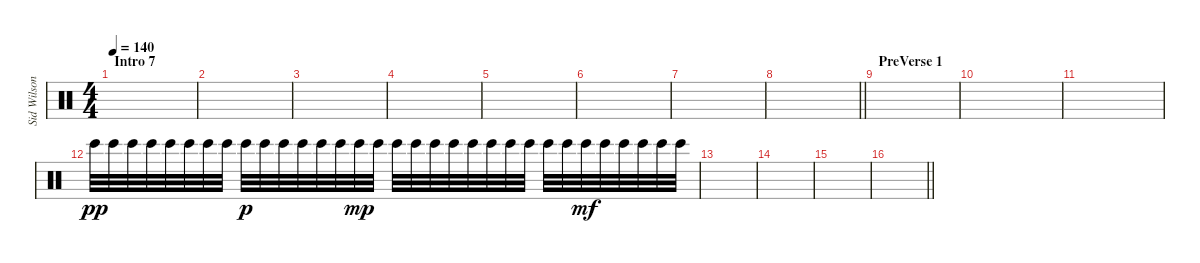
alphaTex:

\track ("Sid Wilson" "Sid Wilson") {instrument percussion}
\staff {score}
\articulation defaults
\ts (4 4)
\section ("" "Intro 7")
\tempo 140
\clef neutral
\ks c
|
|
|
|
|
|
|
\barLineRight lightlight
|
\section ("" "PreVerse 1")
|
|
|
"Bongo High (hit)".32{dy pp} "Bongo High (hit)".32 "Bongo High (hit)".32 "Bongo High (hit)".32 "Bongo High (hit)".32 "Bongo High (hit)".32 "Bongo High (hit)".32 "Bongo High (hit)".32 "Bongo High (hit)".32{dy p} "Bongo High (hit)".32 "Bongo High (hit)".32 "Bongo High (hit)".32 "Bongo High (hit)".32 "Bongo High (hit)".32 "Bongo High (hit)".32{dy mp} "Bongo High (hit)".32 "Bongo High (hit)".32 "Bongo High (hit)".32 "Bongo High (hit)".32 "Bongo High (hit)".32 "Bongo High (hit)".32 "Bongo High (hit)".32 "Bongo High (hit)".32 "Bongo High (hit)".32 "Bongo High (hit)".32 "Bongo High (hit)".32 "Bongo High (hit)".32{dy mf} "Bongo High (hit)".32 "Bongo High (hit)".32 "Bongo High (hit)".32 "Bongo High (hit)".32 "Bongo High (hit)".32 |
|
|
|
\barLineRight lightlight
